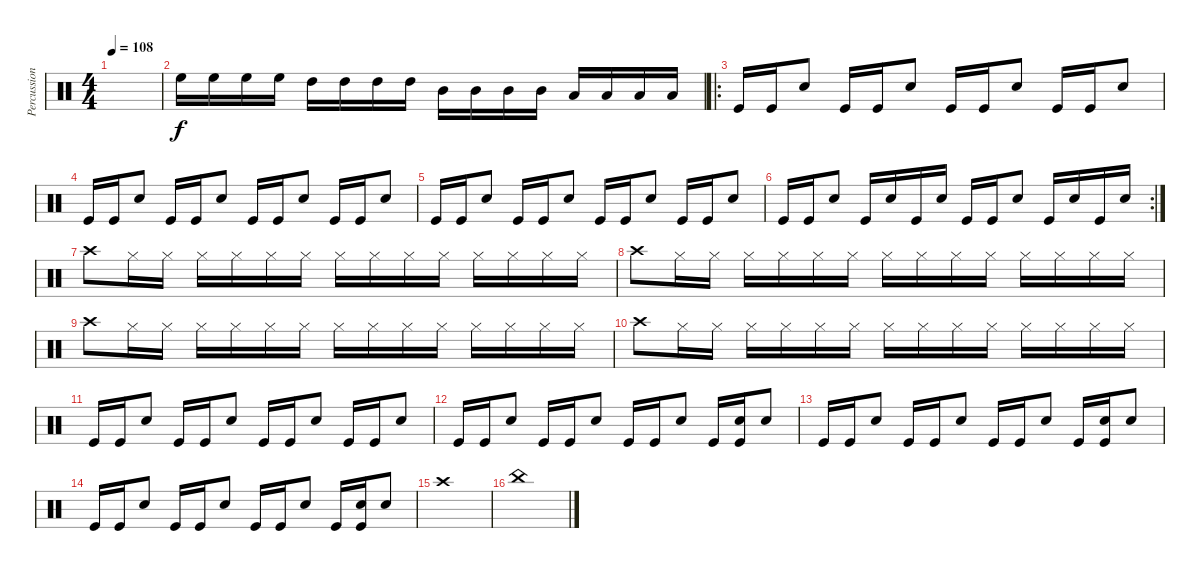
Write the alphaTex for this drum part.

\track ("Percussion" "Percussion") {instrument percussion}
\staff {score}
\articulation defaults
\ts (4 4)
\tempo 108
\clef neutral
\ks c
|
"High Floor Tom (hit)".16 "High Floor Tom (hit)".16 "High Floor Tom (hit)".16 "High Floor Tom (hit)".16 "High Tom (hit)".16 "High Tom (hit)".16 "High Tom (hit)".16 "High Tom (hit)".16 "Mid Tom (hit)".16 "Mid Tom (hit)".16 "Mid Tom (hit)".16 "Mid Tom (hit)".16 "Low Tom (hit)".16 "Low Tom (hit)".16 "Low Tom (hit)".16 "Low Tom (hit)".16 |
\ro "Kick (hit)".16 "Kick (hit)".16 "Electric Snare (hit)".8 "Kick (hit)".16 "Kick (hit)".16 "Electric Snare (hit)".8 "Kick (hit)".16 "Kick (hit)".16 "Electric Snare (hit)".8 "Kick (hit)".16 "Kick (hit)".16 "Electric Snare (hit)".8
|
"Kick (hit)".16 "Kick (hit)".16 "Electric Snare (hit)".8 "Kick (hit)".16 "Kick (hit)".16 "Electric Snare (hit)".8 "Kick (hit)".16 "Kick (hit)".16 "Electric Snare (hit)".8 "Kick (hit)".16 "Kick (hit)".16 "Electric Snare (hit)".8 |
"Kick (hit)".16 "Kick (hit)".16 "Electric Snare (hit)".8 "Kick (hit)".16 "Kick (hit)".16 "Electric Snare (hit)".8 "Kick (hit)".16 "Kick (hit)".16 "Electric Snare (hit)".8 "Kick (hit)".16 "Kick (hit)".16 "Electric Snare (hit)".8 |
\rc 2 "Kick (hit)".16 "Kick (hit)".16 "Snare (hit) 2".8 "Kick (hit)".16 "Snare (hit) 2".16 "Kick (hit)".16 "Snare (hit) 2".16 "Kick (hit)".16 "Kick (hit)".16 "Snare (hit) 2".8 "Kick (hit)".16 "Snare (hit) 2".16 "Kick (hit)".16 "Snare (hit) 2".16
|
"Crash high (hit)".8 "Hi-Hat (closed)".16 "Hi-Hat (closed)".16 "Hi-Hat (closed)".16 "Hi-Hat (closed)".16 "Hi-Hat (closed)".16 "Hi-Hat (closed)".16 "Hi-Hat (closed)".16 "Hi-Hat (closed)".16 "Hi-Hat (closed)".16 "Hi-Hat (closed)".16 "Hi-Hat (closed)".16 "Hi-Hat (closed)".16 "Hi-Hat (closed)".16 "Hi-Hat (closed)".16 |
"Crash high (hit)".8 "Hi-Hat (closed)".16 "Hi-Hat (closed)".16 "Hi-Hat (closed)".16 "Hi-Hat (closed)".16 "Hi-Hat (closed)".16 "Hi-Hat (closed)".16 "Hi-Hat (closed)".16 "Hi-Hat (closed)".16 "Hi-Hat (closed)".16 "Hi-Hat (closed)".16 "Hi-Hat (closed)".16 "Hi-Hat (closed)".16 "Hi-Hat (closed)".16 "Hi-Hat (closed)".16 |
"Crash high (hit)".8 "Hi-Hat (closed)".16 "Hi-Hat (closed)".16 "Hi-Hat (closed)".16 "Hi-Hat (closed)".16 "Hi-Hat (closed)".16 "Hi-Hat (closed)".16 "Hi-Hat (closed)".16 "Hi-Hat (closed)".16 "Hi-Hat (closed)".16 "Hi-Hat (closed)".16 "Hi-Hat (closed)".16 "Hi-Hat (closed)".16 "Hi-Hat (closed)".16 "Hi-Hat (closed)".16 |
"Crash high (hit)".8 "Hi-Hat (closed)".16 "Hi-Hat (closed)".16 "Hi-Hat (closed)".16 "Hi-Hat (closed)".16 "Hi-Hat (closed)".16 "Hi-Hat (closed)".16 "Hi-Hat (closed)".16 "Hi-Hat (closed)".16 "Hi-Hat (closed)".16 "Hi-Hat (closed)".16 "Hi-Hat (closed)".16 "Hi-Hat (closed)".16 "Hi-Hat (closed)".16 "Hi-Hat (closed)".16 |
"Kick (hit)".16 "Kick (hit)".16 "Electric Snare (hit)".8 "Kick (hit)".16 "Kick (hit)".16 "Electric Snare (hit)".8 "Kick (hit)".16 "Kick (hit)".16 "Electric Snare (hit)".8 "Kick (hit)".16 "Kick (hit)".16 "Electric Snare (hit)".8 |
"Kick (hit)".16 "Kick (hit)".16 "Electric Snare (hit)".8 "Kick (hit)".16 "Kick (hit)".16 "Electric Snare (hit)".8 "Kick (hit)".16 "Kick (hit)".16 "Electric Snare (hit)".8 "Kick (hit)".16 ("Electric Snare (hit)" "Kick (hit)").16 "Electric Snare (hit)".8 |
"Kick (hit)".16 "Kick (hit)".16 "Electric Snare (hit)".8 "Kick (hit)".16 "Kick (hit)".16 "Electric Snare (hit)".8 "Kick (hit)".16 "Kick (hit)".16 "Electric Snare (hit)".8 "Kick (hit)".16 ("Electric Snare (hit)" "Kick (hit)").16 "Electric Snare (hit)".8 |
"Kick (hit)".16 "Kick (hit)".16 "Electric Snare (hit)".8 "Kick (hit)".16 "Kick (hit)".16 "Electric Snare (hit)".8 "Kick (hit)".16 "Kick (hit)".16 "Electric Snare (hit)".8 "Kick (hit)".16 ("Electric Snare (hit)" "Kick (hit)").16 "Electric Snare (hit)".8 |
"Crash high (hit)".1 |
"China (hit)".1
